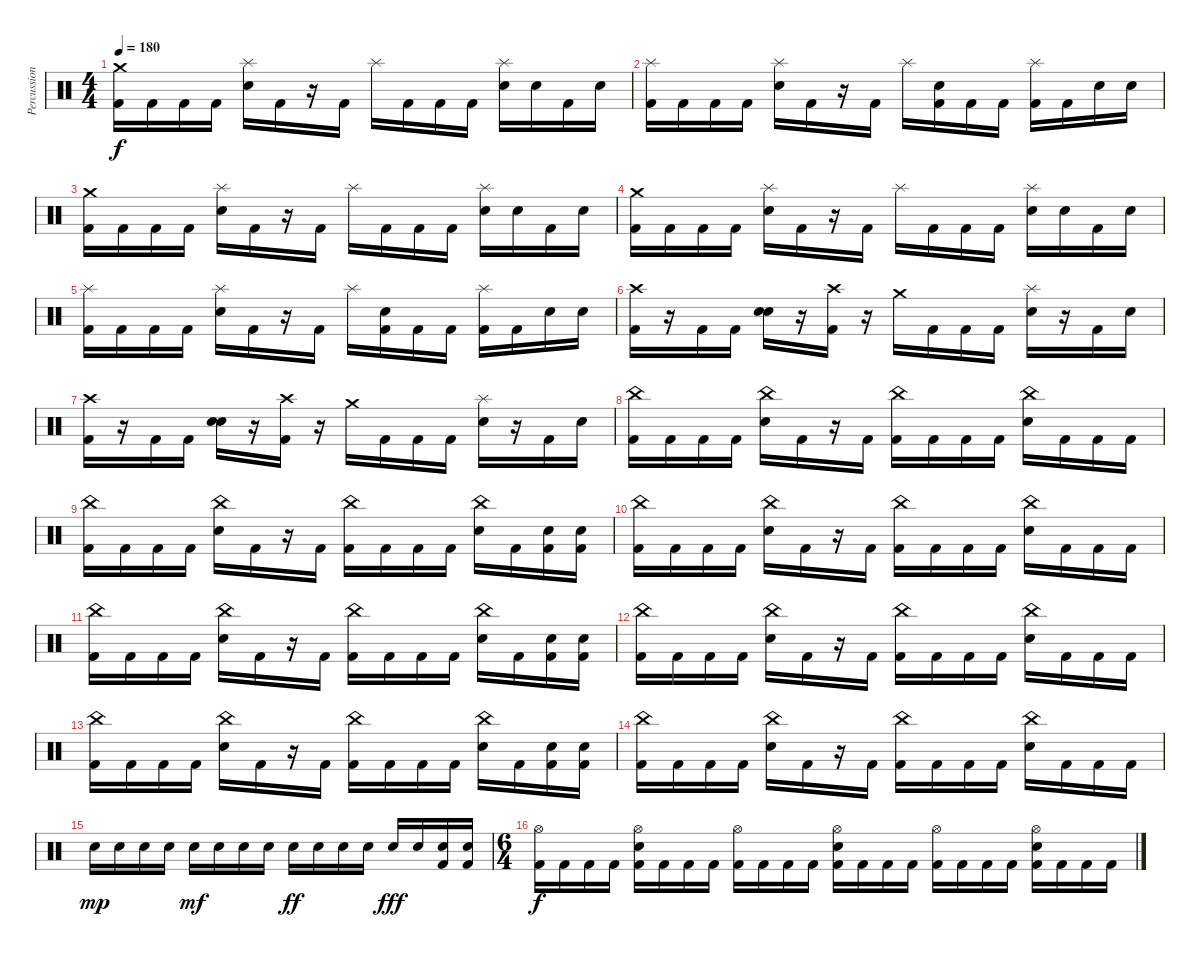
\track ("Percussion" "Percussion") {instrument percussion}
\staff {score}
\articulation defaults
\ts (4 4)
\tempo 180
\clef neutral
\ks c
("Crash medium (hit)" "Kick (hit) 2").16{dy f} "Kick (hit) 2".16 "Kick (hit) 2".16 "Kick (hit) 2".16 ("Splash (hit)" "Electric Snare (hit)").16 "Kick (hit) 2".16 r.16 "Kick (hit) 2".16 "Splash (hit)".16 "Kick (hit) 2".16 "Kick (hit) 2".16 "Kick (hit) 2".16 ("Splash (hit)" "Electric Snare (hit)").16 "Electric Snare (hit)".16 "Kick (hit) 2".16 "Electric Snare (hit)".16 |
("Splash (hit)" "Kick (hit) 2").16 "Kick (hit) 2".16 "Kick (hit) 2".16 "Kick (hit) 2".16 ("Splash (hit)" "Electric Snare (hit)").16 "Kick (hit) 2".16 r.16 "Kick (hit) 2".16 "Splash (hit)".16 ("Electric Snare (hit)" "Kick (hit) 2").16 "Kick (hit) 2".16 "Kick (hit) 2".16 ("Splash (hit)" "Kick (hit) 2").16 "Kick (hit) 2".16 "Electric Snare (hit)".16 "Electric Snare (hit)".16 |
("Crash medium (hit)" "Kick (hit) 2").16 "Kick (hit) 2".16 "Kick (hit) 2".16 "Kick (hit) 2".16 ("Splash (hit)" "Electric Snare (hit)").16 "Kick (hit) 2".16 r.16 "Kick (hit) 2".16 "Splash (hit)".16 "Kick (hit) 2".16 "Kick (hit) 2".16 "Kick (hit) 2".16 ("Splash (hit)" "Electric Snare (hit)").16 "Electric Snare (hit)".16 "Kick (hit) 2".16 "Electric Snare (hit)".16 |
("Crash medium (hit)" "Kick (hit) 2").16 "Kick (hit) 2".16 "Kick (hit) 2".16 "Kick (hit) 2".16 ("Splash (hit)" "Electric Snare (hit)").16 "Kick (hit) 2".16 r.16 "Kick (hit) 2".16 "Splash (hit)".16 "Kick (hit) 2".16 "Kick (hit) 2".16 "Kick (hit) 2".16 ("Splash (hit)" "Electric Snare (hit)").16 "Electric Snare (hit)".16 "Kick (hit) 2".16 "Electric Snare (hit)".16 |
("Splash (hit)" "Kick (hit) 2").16 "Kick (hit) 2".16 "Kick (hit) 2".16 "Kick (hit) 2".16 ("Splash (hit)" "Electric Snare (hit)").16 "Kick (hit) 2".16 r.16 "Kick (hit) 2".16 "Splash (hit)".16 ("Electric Snare (hit)" "Kick (hit) 2").16 "Kick (hit) 2".16 "Kick (hit) 2".16 ("Splash (hit)" "Kick (hit) 2").16 "Kick (hit) 2".16 "Electric Snare (hit)".16 "Electric Snare (hit)".16 |
("Crash high (hit)" "Kick (hit) 2").16 r.16 "Kick (hit) 2".16 "Kick (hit) 2".16 ("Electric Snare (hit)" "Electric Snare (hit)").16 r.16 ("Crash high (hit)" "Kick (hit) 2").16 r.16 "Crash medium (hit)".16 "Kick (hit) 2".16 "Kick (hit) 2".16 "Kick (hit) 2".16 ("Splash (hit)" "Electric Snare (hit)").16 r.16 "Kick (hit) 2".16 "Electric Snare (hit)".16 |
("Crash high (hit)" "Kick (hit) 2").16 r.16 "Kick (hit) 2".16 "Kick (hit) 2".16 ("Electric Snare (hit)" "Electric Snare (hit)").16 r.16 ("Crash high (hit)" "Kick (hit) 2").16 r.16 "Crash medium (hit)".16 "Kick (hit) 2".16 "Kick (hit) 2".16 "Kick (hit) 2".16 ("Splash (hit)" "Electric Snare (hit)").16 r.16 "Kick (hit) 2".16 "Electric Snare (hit)".16 |
("China (hit)" "Kick (hit) 2").16 "Kick (hit) 2".16 "Kick (hit) 2".16 "Kick (hit) 2".16 ("China (hit)" "Electric Snare (hit)").16 "Kick (hit) 2".16 r.16 "Kick (hit) 2".16 ("China (hit)" "Kick (hit) 2").16 "Kick (hit) 2".16 "Kick (hit) 2".16 "Kick (hit) 2".16 ("China (hit)" "Electric Snare (hit)").16 "Kick (hit) 2".16 "Kick (hit) 2".16 "Kick (hit) 2".16 |
("China (hit)" "Kick (hit) 2").16 "Kick (hit) 2".16 "Kick (hit) 2".16 "Kick (hit) 2".16 ("China (hit)" "Electric Snare (hit)").16 "Kick (hit) 2".16 r.16 "Kick (hit) 2".16 ("China (hit)" "Kick (hit) 2").16 "Kick (hit) 2".16 "Kick (hit) 2".16 "Kick (hit) 2".16 ("China (hit)" "Electric Snare (hit)").16 "Kick (hit) 2".16 ("Electric Snare (hit)" "Kick (hit) 2").16 ("Electric Snare (hit)" "Kick (hit) 2").16 |
("China (hit)" "Kick (hit) 2").16 "Kick (hit) 2".16 "Kick (hit) 2".16 "Kick (hit) 2".16 ("China (hit)" "Electric Snare (hit)").16 "Kick (hit) 2".16 r.16 "Kick (hit) 2".16 ("China (hit)" "Kick (hit) 2").16 "Kick (hit) 2".16 "Kick (hit) 2".16 "Kick (hit) 2".16 ("China (hit)" "Electric Snare (hit)").16 "Kick (hit) 2".16 "Kick (hit) 2".16 "Kick (hit) 2".16 |
("China (hit)" "Kick (hit) 2").16 "Kick (hit) 2".16 "Kick (hit) 2".16 "Kick (hit) 2".16 ("China (hit)" "Electric Snare (hit)").16 "Kick (hit) 2".16 r.16 "Kick (hit) 2".16 ("China (hit)" "Kick (hit) 2").16 "Kick (hit) 2".16 "Kick (hit) 2".16 "Kick (hit) 2".16 ("China (hit)" "Electric Snare (hit)").16 "Kick (hit) 2".16 ("Electric Snare (hit)" "Kick (hit) 2").16 ("Electric Snare (hit)" "Kick (hit) 2").16 |
("China (hit)" "Kick (hit) 2").16 "Kick (hit) 2".16 "Kick (hit) 2".16 "Kick (hit) 2".16 ("China (hit)" "Electric Snare (hit)").16 "Kick (hit) 2".16 r.16 "Kick (hit) 2".16 ("China (hit)" "Kick (hit) 2").16 "Kick (hit) 2".16 "Kick (hit) 2".16 "Kick (hit) 2".16 ("China (hit)" "Electric Snare (hit)").16 "Kick (hit) 2".16 "Kick (hit) 2".16 "Kick (hit) 2".16 |
("China (hit)" "Kick (hit) 2").16 "Kick (hit) 2".16 "Kick (hit) 2".16 "Kick (hit) 2".16 ("China (hit)" "Electric Snare (hit)").16 "Kick (hit) 2".16 r.16 "Kick (hit) 2".16 ("China (hit)" "Kick (hit) 2").16 "Kick (hit) 2".16 "Kick (hit) 2".16 "Kick (hit) 2".16 ("China (hit)" "Electric Snare (hit)").16 "Kick (hit) 2".16 ("Electric Snare (hit)" "Kick (hit) 2").16 ("Electric Snare (hit)" "Kick (hit) 2").16 |
("China (hit)" "Kick (hit) 2").16 "Kick (hit) 2".16 "Kick (hit) 2".16 "Kick (hit) 2".16 ("China (hit)" "Electric Snare (hit)").16 "Kick (hit) 2".16 r.16 "Kick (hit) 2".16 ("China (hit)" "Kick (hit) 2").16 "Kick (hit) 2".16 "Kick (hit) 2".16 "Kick (hit) 2".16 ("China (hit)" "Electric Snare (hit)").16 "Kick (hit) 2".16 "Kick (hit) 2".16 "Kick (hit) 2".16 |
"Electric Snare (hit)".16{dy mp} "Electric Snare (hit)".16 "Electric Snare (hit)".16 "Electric Snare (hit)".16 "Electric Snare (hit)".16{dy mf} "Electric Snare (hit)".16 "Electric Snare (hit)".16 "Electric Snare (hit)".16 "Electric Snare (hit)".16{dy ff} "Electric Snare (hit)".16 "Electric Snare (hit)".16 "Electric Snare (hit)".16 "Electric Snare (hit)".16{dy fff} "Electric Snare (hit)".16 ("Electric Snare (hit)" "Kick (hit) 2").16 ("Electric Snare (hit)" "Kick (hit) 2").16 |
\ts (6 4)
("Hi-Hat (open)" "Kick (hit) 2").16{dy f} "Kick (hit) 2".16 "Kick (hit) 2".16 "Kick (hit) 2".16 ("Hi-Hat (open)" "Electric Snare (hit)" "Kick (hit) 2").16 "Kick (hit) 2".16 "Kick (hit) 2".16 "Kick (hit) 2".16 ("Hi-Hat (open)" "Kick (hit) 2").16 "Kick (hit) 2".16 "Kick (hit) 2".16 "Kick (hit) 2".16 ("Hi-Hat (open)" "Electric Snare (hit)" "Kick (hit) 2").16 "Kick (hit) 2".16 "Kick (hit) 2".16 "Kick (hit) 2".16 ("Hi-Hat (open)" "Kick (hit) 2").16 "Kick (hit) 2".16 "Kick (hit) 2".16 "Kick (hit) 2".16 ("Hi-Hat (open)" "Electric Snare (hit)" "Kick (hit) 2").16 "Kick (hit) 2".16 "Kick (hit) 2".16 "Kick (hit) 2".16
